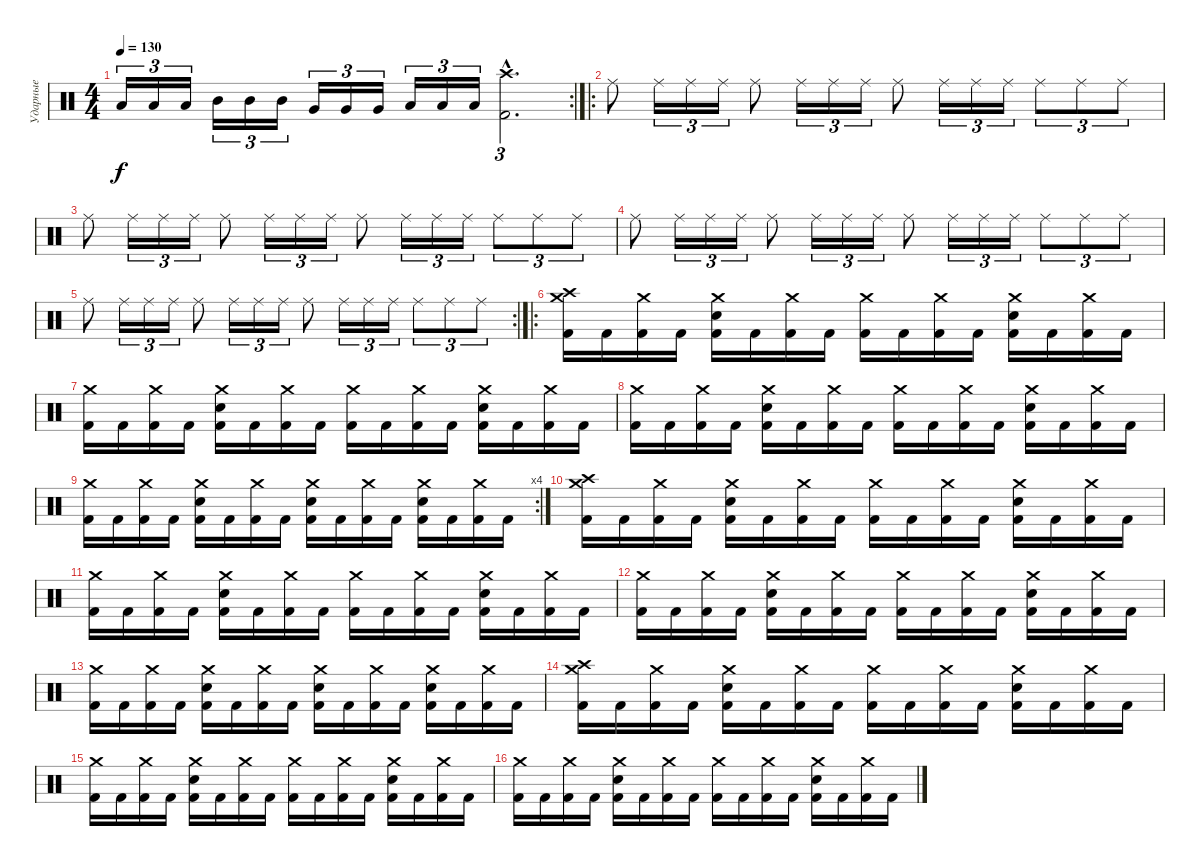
\track ("Ударные" "Ударные") {instrument percussion}
\staff {score}
\articulation defaults
\rc 2
\ts (4 4)
\tempo 130
\clef neutral
\ks c "Low Tom (hit)".16{tu (3 2) dy f} "Low Tom (hit)".16{tu (3 2)} "Low Tom (hit)".16{tu (3 2)} "Mid Tom (hit)".16{tu (3 2)} "Mid Tom (hit)".16{tu (3 2)} "Mid Tom (hit)".16{tu (3 2)} "Very Low Tom (hit)".16{tu (3 2)} "Very Low Tom (hit)".16{tu (3 2)} "Very Low Tom (hit)".16{tu (3 2)} "Low Floor Tom (hit)".16{tu (3 2)} "Low Floor Tom (hit)".16{tu (3 2)} "Low Floor Tom (hit)".16{tu (3 2)}
("Kick (hit) 2"{hac} "Crash high (hit)"{hac}).2{d tu (3 2)} |
\ro "Ride (middle)".8 "Ride (middle)".16{tu (3 2)} "Ride (middle)".16{tu (3 2)} "Ride (middle)".16{tu (3 2)} "Ride (middle)".8 "Ride (middle)".16{tu (3 2)} "Ride (middle)".16{tu (3 2)} "Ride (middle)".16{tu (3 2)} "Ride (middle)".8 "Ride (middle)".16{tu (3 2)} "Ride (middle)".16{tu (3 2)} "Ride (middle)".16{tu (3 2)} "Ride (middle)".8{tu (3 2)} "Ride (middle)".8{tu (3 2)} "Ride (middle)".8{tu (3 2)}
|
"Ride (middle)".8 "Ride (middle)".16{tu (3 2)} "Ride (middle)".16{tu (3 2)} "Ride (middle)".16{tu (3 2)} "Ride (middle)".8 "Ride (middle)".16{tu (3 2)} "Ride (middle)".16{tu (3 2)} "Ride (middle)".16{tu (3 2)} "Ride (middle)".8 "Ride (middle)".16{tu (3 2)} "Ride (middle)".16{tu (3 2)} "Ride (middle)".16{tu (3 2)} "Ride (middle)".8{tu (3 2)} "Ride (middle)".8{tu (3 2)} "Ride (middle)".8{tu (3 2)} |
"Ride (middle)".8 "Ride (middle)".16{tu (3 2)} "Ride (middle)".16{tu (3 2)} "Ride (middle)".16{tu (3 2)} "Ride (middle)".8 "Ride (middle)".16{tu (3 2)} "Ride (middle)".16{tu (3 2)} "Ride (middle)".16{tu (3 2)} "Ride (middle)".8 "Ride (middle)".16{tu (3 2)} "Ride (middle)".16{tu (3 2)} "Ride (middle)".16{tu (3 2)} "Ride (middle)".8{tu (3 2)} "Ride (middle)".8{tu (3 2)} "Ride (middle)".8{tu (3 2)} |
\rc 2 "Ride (middle)".8 "Ride (middle)".16{tu (3 2)} "Ride (middle)".16{tu (3 2)} "Ride (middle)".16{tu (3 2)} "Ride (middle)".8 "Ride (middle)".16{tu (3 2)} "Ride (middle)".16{tu (3 2)} "Ride (middle)".16{tu (3 2)} "Ride (middle)".8 "Ride (middle)".16{tu (3 2)} "Ride (middle)".16{tu (3 2)} "Ride (middle)".16{tu (3 2)} "Ride (middle)".8{tu (3 2)} "Ride (middle)".8{tu (3 2)} "Ride (middle)".8{tu (3 2)}
|
\ro
("Crash medium (hit)" "Crash high (hit)" "Kick (hit) 2").16 "Kick (hit) 2".16 ("Crash medium (hit)" "Kick (hit) 2").16 "Kick (hit) 2".16 ("Crash medium (hit)" "Electric Snare (hit)" "Kick (hit) 2").16 "Kick (hit) 2".16 ("Crash medium (hit)" "Kick (hit) 2").16 "Kick (hit) 2".16 ("Crash medium (hit)" "Kick (hit) 2").16 "Kick (hit) 2".16 ("Crash medium (hit)" "Kick (hit) 2").16 "Kick (hit) 2".16 ("Crash medium (hit)" "Electric Snare (hit)" "Kick (hit) 2").16 "Kick (hit) 2".16 ("Crash medium (hit)" "Kick (hit) 2").16 "Kick (hit) 2".16 |
("Crash medium (hit)" "Kick (hit) 2").16 "Kick (hit) 2".16 ("Crash medium (hit)" "Kick (hit) 2").16 "Kick (hit) 2".16 ("Crash medium (hit)" "Electric Snare (hit)" "Kick (hit) 2").16 "Kick (hit) 2".16 ("Crash medium (hit)" "Kick (hit) 2").16 "Kick (hit) 2".16 ("Crash medium (hit)" "Kick (hit) 2").16 "Kick (hit) 2".16 ("Crash medium (hit)" "Kick (hit) 2").16 "Kick (hit) 2".16 ("Crash medium (hit)" "Electric Snare (hit)" "Kick (hit) 2").16 "Kick (hit) 2".16 ("Crash medium (hit)" "Kick (hit) 2").16 "Kick (hit) 2".16 |
("Crash medium (hit)" "Kick (hit) 2").16 "Kick (hit) 2".16 ("Crash medium (hit)" "Kick (hit) 2").16 "Kick (hit) 2".16 ("Crash medium (hit)" "Electric Snare (hit)" "Kick (hit) 2").16 "Kick (hit) 2".16 ("Crash medium (hit)" "Kick (hit) 2").16 "Kick (hit) 2".16 ("Crash medium (hit)" "Kick (hit) 2").16 "Kick (hit) 2".16 ("Crash medium (hit)" "Kick (hit) 2").16 "Kick (hit) 2".16 ("Crash medium (hit)" "Electric Snare (hit)" "Kick (hit) 2").16 "Kick (hit) 2".16 ("Crash medium (hit)" "Kick (hit) 2").16 "Kick (hit) 2".16 |
\rc 4
("Crash medium (hit)" "Kick (hit) 2").16 "Kick (hit) 2".16 ("Crash medium (hit)" "Kick (hit) 2").16 "Kick (hit) 2".16 ("Crash medium (hit)" "Electric Snare (hit)" "Kick (hit) 2").16 "Kick (hit) 2".16 ("Crash medium (hit)" "Kick (hit) 2").16 "Kick (hit) 2".16 ("Crash medium (hit)" "Electric Snare (hit)" "Kick (hit) 2").16 "Kick (hit) 2".16 ("Crash medium (hit)" "Kick (hit) 2").16 "Kick (hit) 2".16 ("Crash medium (hit)" "Electric Snare (hit)" "Kick (hit) 2").16 "Kick (hit) 2".16 ("Crash medium (hit)" "Kick (hit) 2").16 "Kick (hit) 2".16 |
("Crash medium (hit)" "Crash high (hit)" "Kick (hit) 2").16{volume 10} "Kick (hit) 2".16 ("Crash medium (hit)" "Kick (hit) 2").16 "Kick (hit) 2".16 ("Crash medium (hit)" "Electric Snare (hit)" "Kick (hit) 2").16 "Kick (hit) 2".16 ("Crash medium (hit)" "Kick (hit) 2").16 "Kick (hit) 2".16 ("Crash medium (hit)" "Kick (hit) 2").16 "Kick (hit) 2".16 ("Crash medium (hit)" "Kick (hit) 2").16 "Kick (hit) 2".16 ("Crash medium (hit)" "Electric Snare (hit)" "Kick (hit) 2").16 "Kick (hit) 2".16 ("Crash medium (hit)" "Kick (hit) 2").16 "Kick (hit) 2".16 |
("Crash medium (hit)" "Kick (hit) 2").16{volume 8} "Kick (hit) 2".16 ("Crash medium (hit)" "Kick (hit) 2").16 "Kick (hit) 2".16 ("Crash medium (hit)" "Electric Snare (hit)" "Kick (hit) 2").16 "Kick (hit) 2".16 ("Crash medium (hit)" "Kick (hit) 2").16 "Kick (hit) 2".16 ("Crash medium (hit)" "Kick (hit) 2").16 "Kick (hit) 2".16 ("Crash medium (hit)" "Kick (hit) 2").16 "Kick (hit) 2".16 ("Crash medium (hit)" "Electric Snare (hit)" "Kick (hit) 2").16 "Kick (hit) 2".16 ("Crash medium (hit)" "Kick (hit) 2").16 "Kick (hit) 2".16 |
("Crash medium (hit)" "Kick (hit) 2").16{volume 6} "Kick (hit) 2".16 ("Crash medium (hit)" "Kick (hit) 2").16 "Kick (hit) 2".16 ("Crash medium (hit)" "Electric Snare (hit)" "Kick (hit) 2").16 "Kick (hit) 2".16 ("Crash medium (hit)" "Kick (hit) 2").16 "Kick (hit) 2".16 ("Crash medium (hit)" "Kick (hit) 2").16 "Kick (hit) 2".16 ("Crash medium (hit)" "Kick (hit) 2").16 "Kick (hit) 2".16 ("Crash medium (hit)" "Electric Snare (hit)" "Kick (hit) 2").16 "Kick (hit) 2".16 ("Crash medium (hit)" "Kick (hit) 2").16 "Kick (hit) 2".16 |
("Crash medium (hit)" "Kick (hit) 2").16{volume 4} "Kick (hit) 2".16 ("Crash medium (hit)" "Kick (hit) 2").16 "Kick (hit) 2".16 ("Crash medium (hit)" "Electric Snare (hit)" "Kick (hit) 2").16 "Kick (hit) 2".16 ("Crash medium (hit)" "Kick (hit) 2").16 "Kick (hit) 2".16 ("Crash medium (hit)" "Electric Snare (hit)" "Kick (hit) 2").16 "Kick (hit) 2".16 ("Crash medium (hit)" "Kick (hit) 2").16 "Kick (hit) 2".16 ("Crash medium (hit)" "Electric Snare (hit)" "Kick (hit) 2").16 "Kick (hit) 2".16 ("Crash medium (hit)" "Kick (hit) 2").16 "Kick (hit) 2".16 |
("Crash medium (hit)" "Crash high (hit)" "Kick (hit) 2").16{volume 2} "Kick (hit) 2".16 ("Crash medium (hit)" "Kick (hit) 2").16 "Kick (hit) 2".16 ("Crash medium (hit)" "Electric Snare (hit)" "Kick (hit) 2").16 "Kick (hit) 2".16 ("Crash medium (hit)" "Kick (hit) 2").16 "Kick (hit) 2".16 ("Crash medium (hit)" "Kick (hit) 2").16 "Kick (hit) 2".16 ("Crash medium (hit)" "Kick (hit) 2").16 "Kick (hit) 2".16 ("Crash medium (hit)" "Electric Snare (hit)" "Kick (hit) 2").16 "Kick (hit) 2".16 ("Crash medium (hit)" "Kick (hit) 2").16 "Kick (hit) 2".16 |
("Crash medium (hit)" "Kick (hit) 2").16{volume 0} "Kick (hit) 2".16 ("Crash medium (hit)" "Kick (hit) 2").16 "Kick (hit) 2".16 ("Crash medium (hit)" "Electric Snare (hit)" "Kick (hit) 2").16 "Kick (hit) 2".16 ("Crash medium (hit)" "Kick (hit) 2").16 "Kick (hit) 2".16 ("Crash medium (hit)" "Kick (hit) 2").16 "Kick (hit) 2".16 ("Crash medium (hit)" "Kick (hit) 2").16 "Kick (hit) 2".16 ("Crash medium (hit)" "Electric Snare (hit)" "Kick (hit) 2").16 "Kick (hit) 2".16 ("Crash medium (hit)" "Kick (hit) 2").16 "Kick (hit) 2".16 |
("Crash medium (hit)" "Kick (hit) 2").16 "Kick (hit) 2".16 ("Crash medium (hit)" "Kick (hit) 2").16 "Kick (hit) 2".16 ("Crash medium (hit)" "Electric Snare (hit)" "Kick (hit) 2").16 "Kick (hit) 2".16 ("Crash medium (hit)" "Kick (hit) 2").16 "Kick (hit) 2".16 ("Crash medium (hit)" "Kick (hit) 2").16 "Kick (hit) 2".16 ("Crash medium (hit)" "Kick (hit) 2").16 "Kick (hit) 2".16 ("Crash medium (hit)" "Electric Snare (hit)" "Kick (hit) 2").16 "Kick (hit) 2".16 ("Crash medium (hit)" "Kick (hit) 2").16 "Kick (hit) 2".16
